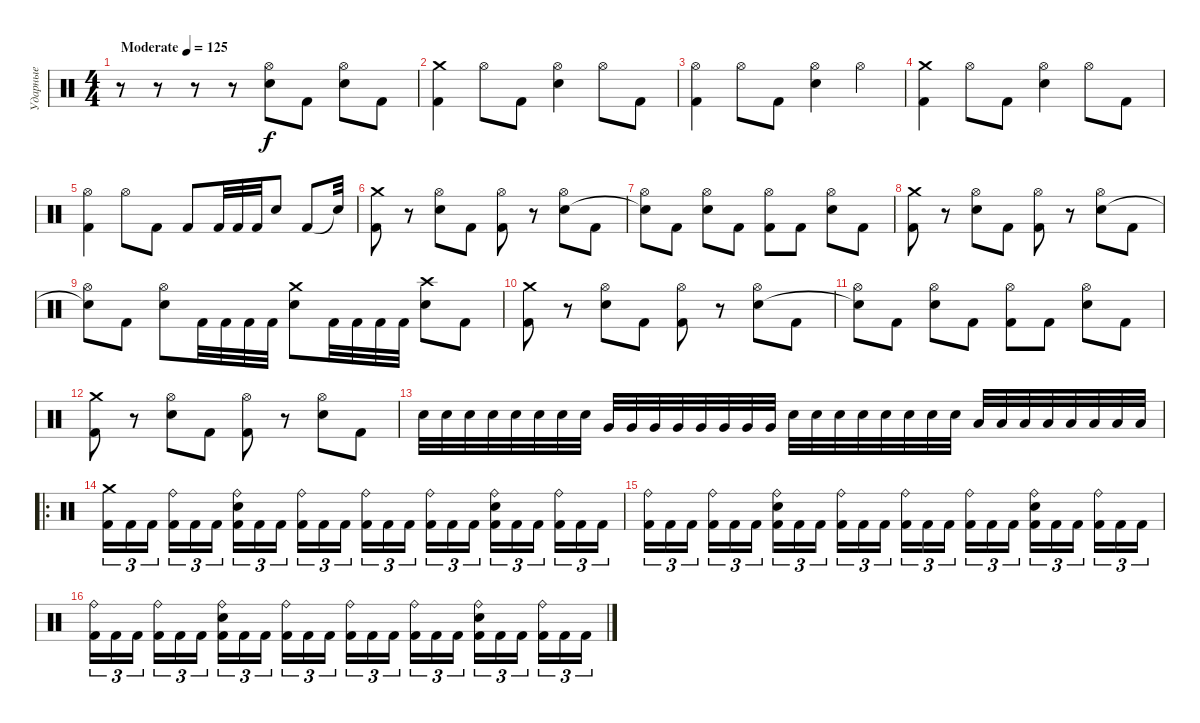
\track ("Ударные" "Ударные") {instrument percussion}
\staff {score}
\articulation defaults
\ts (4 4)
\tempo (125 "Moderate")
\clef neutral
\ks c
r.8{dy f} r.8 r.8 r.8 ("Hi-Hat (open)" "Electric Snare (hit)").8 "Kick (hit) 2".8 ("Hi-Hat (open)" "Electric Snare (hit)").8 "Kick (hit) 2".8 |
("Crash medium (hit)" "Kick (hit) 2").4 "Hi-Hat (open)".8 "Kick (hit) 2".8 ("Hi-Hat (open)" "Electric Snare (hit)").4 "Hi-Hat (open)".8 "Kick (hit) 2".8 |
("Hi-Hat (open)" "Kick (hit) 2").4 "Hi-Hat (open)".8 "Kick (hit) 2".8 ("Hi-Hat (open)" "Electric Snare (hit)").4 "Hi-Hat (open)".4 |
("Crash medium (hit)" "Kick (hit) 2").4 "Hi-Hat (open)".8 "Kick (hit) 2".8 ("Hi-Hat (open)" "Electric Snare (hit)").4 "Hi-Hat (open)".8 "Kick (hit) 2".8 |
("Hi-Hat (open)" "Kick (hit) 2").4 "Hi-Hat (open)".8 "Kick (hit) 2".8 "Kick (hit) 2".8 "Kick (hit) 2".32 "Kick (hit) 2".32 "Kick (hit) 2".32 "Electric Snare (hit)".8 "Kick (hit) 2".8 "Snare (hit)"{t}.32 |
("Crash medium (hit)" "Kick (hit) 2").8 r.8 ("Hi-Hat (open)" "Electric Snare (hit)").8 "Kick (hit) 2".8 ("Hi-Hat (open)" "Kick (hit) 2").8 r.8 ("Hi-Hat (open)" "Electric Snare (hit)").8 "Kick (hit) 2".8 |
("Hi-Hat (open)" "Snare (hit)"{t}).8 "Kick (hit) 2".8 ("Hi-Hat (open)" "Electric Snare (hit)").8 "Kick (hit) 2".8 ("Hi-Hat (open)" "Kick (hit) 2").8 "Kick (hit) 2".8 ("Hi-Hat (open)" "Electric Snare (hit)").8 "Kick (hit) 2".8 |
("Crash medium (hit)" "Kick (hit) 2").8 r.8 ("Hi-Hat (open)" "Electric Snare (hit)").8 "Kick (hit) 2".8 ("Hi-Hat (open)" "Kick (hit) 2").8 r.8 ("Hi-Hat (open)" "Electric Snare (hit)").8 "Kick (hit) 2".8 |
("Hi-Hat (open)" "Snare (hit)"{t}).8 "Kick (hit) 2".8 ("Hi-Hat (open)" "Electric Snare (hit)").8 "Kick (hit) 2".32 "Kick (hit) 2".32 "Kick (hit) 2".32 "Kick (hit) 2".32 ("Crash medium (hit)" "Electric Snare (hit)").8 "Kick (hit) 2".32 "Kick (hit) 2".32 "Kick (hit) 2".32 "Kick (hit) 2".32 ("Crash high (hit)" "Electric Snare (hit)").8 "Kick (hit) 2".8 |
("Crash medium (hit)" "Kick (hit) 2").8 r.8 ("Hi-Hat (open)" "Electric Snare (hit)").8 "Kick (hit) 2".8 ("Hi-Hat (open)" "Kick (hit) 2").8 r.8 ("Hi-Hat (open)" "Electric Snare (hit)").8 "Kick (hit) 2".8 |
("Hi-Hat (open)" "Snare (hit)"{t}).8 "Kick (hit) 2".8 ("Hi-Hat (open)" "Electric Snare (hit)").8 "Kick (hit) 2".8 ("Hi-Hat (open)" "Kick (hit) 2").8 "Kick (hit) 2".8 ("Hi-Hat (open)" "Electric Snare (hit)").8 "Kick (hit) 2".8 |
("Crash medium (hit)" "Kick (hit) 2").8 r.8 ("Hi-Hat (open)" "Electric Snare (hit)").8 "Kick (hit) 2".8 ("Hi-Hat (open)" "Kick (hit) 2").8 r.8 ("Hi-Hat (open)" "Electric Snare (hit)").8 "Kick (hit) 2".8 |
"Electric Snare (hit)".32 "Electric Snare (hit)".32 "Electric Snare (hit)".32 "Electric Snare (hit)".32 "Electric Snare (hit)".32 "Electric Snare (hit)".32 "Electric Snare (hit)".32 "Electric Snare (hit)".32 "Very Low Tom (hit)".32 "Very Low Tom (hit)".32 "Very Low Tom (hit)".32 "Very Low Tom (hit)".32 "Very Low Tom (hit)".32 "Very Low Tom (hit)".32 "Very Low Tom (hit)".32 "Very Low Tom (hit)".32 "Electric Snare (hit)".32 "Electric Snare (hit)".32 "Electric Snare (hit)".32 "Electric Snare (hit)".32 "Electric Snare (hit)".32 "Electric Snare (hit)".32 "Electric Snare (hit)".32 "Electric Snare (hit)".32 "Low Floor Tom (hit)".32 "Low Floor Tom (hit)".32 "Low Floor Tom (hit)".32 "Low Floor Tom (hit)".32 "Low Floor Tom (hit)".32 "Low Floor Tom (hit)".32 "Low Floor Tom (hit)".32 "Low Floor Tom (hit)".32 |
\ro
("Crash medium (hit)" "Kick (hit) 2").16{tu (3 2)} "Kick (hit) 2".16{tu (3 2)} "Kick (hit) 2".16{tu (3 2) beam splitsecondary} ("Ride (bell)" "Kick (hit) 2").16{tu (3 2)} "Kick (hit) 2".16{tu (3 2)} "Kick (hit) 2".16{tu (3 2)} ("Ride (bell)" "Electric Snare (hit)" "Kick (hit) 2").16{tu (3 2)} "Kick (hit) 2".16{tu (3 2)} "Kick (hit) 2".16{tu (3 2) beam splitsecondary} ("Ride (bell)" "Kick (hit) 2").16{tu (3 2)} "Kick (hit) 2".16{tu (3 2)} "Kick (hit) 2".16{tu (3 2)} ("Ride (bell)" "Kick (hit) 2").16{tu (3 2)} "Kick (hit) 2".16{tu (3 2)} "Kick (hit) 2".16{tu (3 2) beam splitsecondary} ("Ride (bell)" "Kick (hit) 2").16{tu (3 2)} "Kick (hit) 2".16{tu (3 2)} "Kick (hit) 2".16{tu (3 2)} ("Ride (bell)" "Electric Snare (hit)" "Kick (hit) 2").16{tu (3 2)} "Kick (hit) 2".16{tu (3 2)} "Kick (hit) 2".16{tu (3 2) beam splitsecondary} ("Ride (bell)" "Kick (hit) 2").16{tu (3 2)} "Kick (hit) 2".16{tu (3 2)} "Kick (hit) 2".16{tu (3 2)} |
("Ride (bell)" "Kick (hit) 2").16{tu (3 2)} "Kick (hit) 2".16{tu (3 2)} "Kick (hit) 2".16{tu (3 2) beam splitsecondary} ("Ride (bell)" "Kick (hit) 2").16{tu (3 2)} "Kick (hit) 2".16{tu (3 2)} "Kick (hit) 2".16{tu (3 2)} ("Ride (bell)" "Electric Snare (hit)" "Kick (hit) 2").16{tu (3 2)} "Kick (hit) 2".16{tu (3 2)} "Kick (hit) 2".16{tu (3 2) beam splitsecondary} ("Ride (bell)" "Kick (hit) 2").16{tu (3 2)} "Kick (hit) 2".16{tu (3 2)} "Kick (hit) 2".16{tu (3 2)} ("Ride (bell)" "Kick (hit) 2").16{tu (3 2)} "Kick (hit) 2".16{tu (3 2)} "Kick (hit) 2".16{tu (3 2) beam splitsecondary} ("Ride (bell)" "Kick (hit) 2").16{tu (3 2)} "Kick (hit) 2".16{tu (3 2)} "Kick (hit) 2".16{tu (3 2)} ("Ride (bell)" "Electric Snare (hit)" "Kick (hit) 2").16{tu (3 2)} "Kick (hit) 2".16{tu (3 2)} "Kick (hit) 2".16{tu (3 2) beam splitsecondary} ("Ride (bell)" "Kick (hit) 2").16{tu (3 2)} "Kick (hit) 2".16{tu (3 2)} "Kick (hit) 2".16{tu (3 2)} |
("Ride (bell)" "Kick (hit) 2").16{tu (3 2)} "Kick (hit) 2".16{tu (3 2)} "Kick (hit) 2".16{tu (3 2) beam splitsecondary} ("Ride (bell)" "Kick (hit) 2").16{tu (3 2)} "Kick (hit) 2".16{tu (3 2)} "Kick (hit) 2".16{tu (3 2)} ("Ride (bell)" "Electric Snare (hit)" "Kick (hit) 2").16{tu (3 2)} "Kick (hit) 2".16{tu (3 2)} "Kick (hit) 2".16{tu (3 2) beam splitsecondary} ("Ride (bell)" "Kick (hit) 2").16{tu (3 2)} "Kick (hit) 2".16{tu (3 2)} "Kick (hit) 2".16{tu (3 2)} ("Ride (bell)" "Kick (hit) 2").16{tu (3 2)} "Kick (hit) 2".16{tu (3 2)} "Kick (hit) 2".16{tu (3 2) beam splitsecondary} ("Ride (bell)" "Kick (hit) 2").16{tu (3 2)} "Kick (hit) 2".16{tu (3 2)} "Kick (hit) 2".16{tu (3 2)} ("Ride (bell)" "Electric Snare (hit)" "Kick (hit) 2").16{tu (3 2)} "Kick (hit) 2".16{tu (3 2)} "Kick (hit) 2".16{tu (3 2) beam splitsecondary} ("Ride (bell)" "Kick (hit) 2").16{tu (3 2)} "Kick (hit) 2".16{tu (3 2)} "Kick (hit) 2".16{tu (3 2)}
